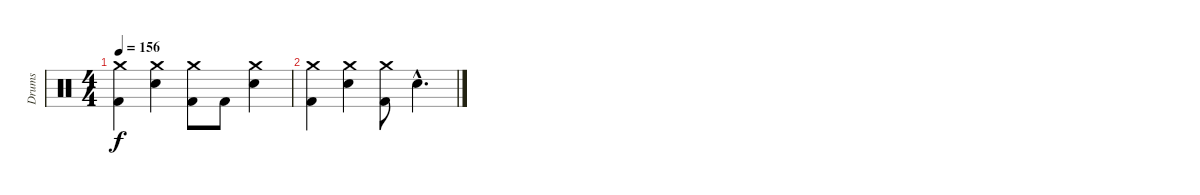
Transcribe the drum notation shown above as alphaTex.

\track ("Drums" "Drums") {instrument percussion}
\staff {score}
\articulation defaults
\ts (4 4)
\tempo 156
\clef neutral
\ks c
("Crash medium (hit)" "Kick (hit) 2").4{dy f} ("Crash medium (hit)" "Electric Snare (hit)").4 ("Crash medium (hit)" "Kick (hit) 2").8 "Kick (hit) 2".8 ("Crash medium (hit)" "Electric Snare (hit)").4 |
("Crash medium (hit)" "Kick (hit) 2").4 ("Crash medium (hit)" "Electric Snare (hit)").4 ("Crash medium (hit)" "Kick (hit) 2").8 "Electric Snare (hit)"{hac}.4{d}
